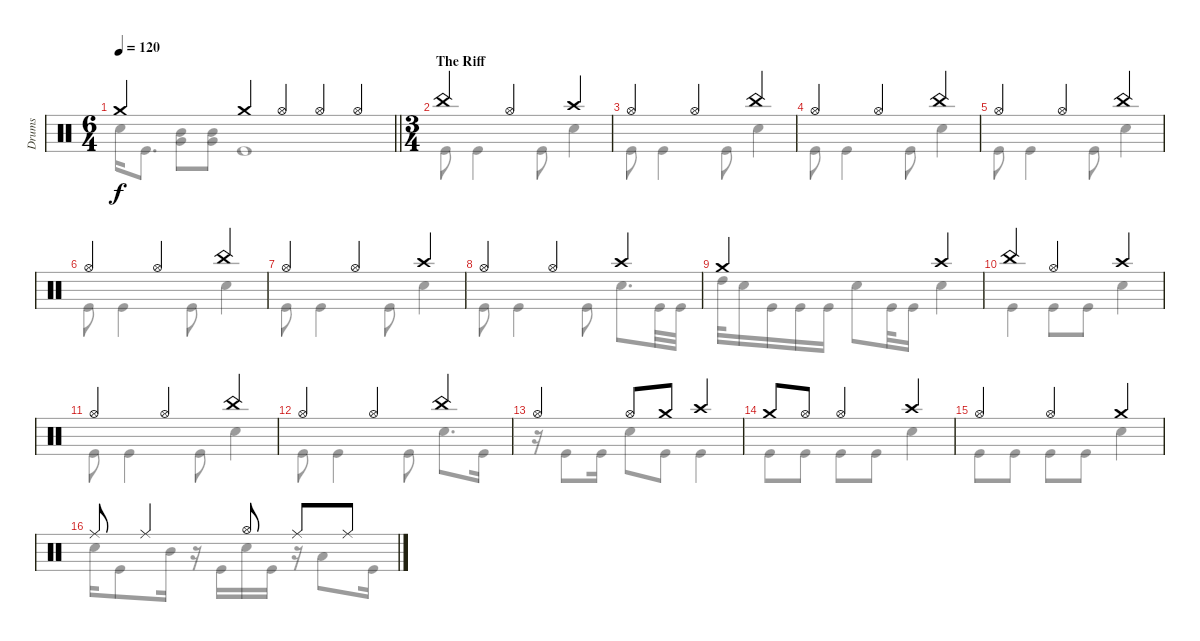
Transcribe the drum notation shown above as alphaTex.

\track ("Drums" "Drums") {instrument percussion}
\staff {score}
\articulation defaults
\voice
\ts (6 4)
\tempo 120
\clef neutral
\barLineRight lightlight
\ks c "Crash medium (hit)".2{dy f} "Crash medium (hit)".4 "Hi-Hat (open)".4 "Hi-Hat (open)".4 "Hi-Hat (open)".4
|
\ts (3 4)
\section ("" "The Riff")
"China (hit)".4 "Hi-Hat (open)".4 "Crash high (hit)".4 |
"Hi-Hat (open)".4 "Hi-Hat (open)".4 "China (hit)".4 |
"Hi-Hat (open)".4 "Hi-Hat (open)".4 "China (hit)".4 |
"Hi-Hat (open)".4 "Hi-Hat (open)".4 "China (hit)".4 |
"Hi-Hat (open)".4 "Hi-Hat (open)".4 "China (hit)".4 |
"Hi-Hat (open)".4 "Hi-Hat (open)".4 "Crash high (hit)".4 |
"Hi-Hat (open)".4 "Hi-Hat (open)".4 "Crash high (hit)".4 |
"Crash medium (hit)".2 "Crash high (hit)".4 |
"China (hit)".4 "Hi-Hat (open)".4 "Crash high (hit)".4 |
"Hi-Hat (open)".4 "Hi-Hat (open)".4 "China (hit)".4 |
"Hi-Hat (open)".4 "Hi-Hat (open)".4 "China (hit)".4 |
"Hi-Hat (open)".4 "Hi-Hat (open)".8 "Crash medium (hit)".8 "Crash high (hit)".4 |
"Crash medium (hit)".8 "Hi-Hat (open)".8 "Hi-Hat (open)".4 "Crash high (hit)".4 |
"Hi-Hat (open)".4 "Hi-Hat (open)".4 "Crash medium (hit)".4 |
"Ride (middle)".8 "Ride (middle)".4 "Hi-Hat (open)".8 "Ride (middle)".8 "Ride (middle)".8
\voice
\clef neutral
\ottava regular
\simile none
\barLineRight lightlight
\ks c "Snare (hit) 2".16{dy f} "Kick (hit)".8{d}
("Mid Tom (hit)" "Very Low Tom (hit)").8 ("Mid Tom (hit)" "Very Low Tom (hit)").8 "Kick (hit)".1 |
"Kick (hit)".8 "Kick (hit)".4 "Kick (hit)".8 "Snare (hit) 2".4 |
"Kick (hit)".8 "Kick (hit)".4 "Kick (hit)".8 "Snare (hit) 2".4 |
"Kick (hit)".8 "Kick (hit)".4 "Kick (hit)".8 "Snare (hit) 2".4 |
"Kick (hit)".8 "Kick (hit)".4 "Kick (hit)".8 "Snare (hit) 2".4 |
"Kick (hit)".8 "Kick (hit)".4 "Kick (hit)".8 "Snare (hit) 2".4 |
"Kick (hit)".8 "Kick (hit)".4 "Kick (hit)".8 "Snare (hit) 2".4 |
"Kick (hit)".8 "Kick (hit)".4 "Kick (hit)".8 "Snare (hit) 2".8{d} "Kick (hit)".32 "Kick (hit)".32 |
"High Tom (hit)".32 "Snare (hit) 2".16 "Kick (hit)".16 "Kick (hit)".16 "Kick (hit)".16 "Snare (hit) 2".8 "Kick (hit)".32 "Kick (hit)".16 "Snare (hit) 2".4 |
"Kick (hit)".4 "Kick (hit)".8 "Kick (hit)".8 "Snare (hit) 2".4 |
"Kick (hit)".8 "Kick (hit)".4 "Kick (hit)".8 "Snare (hit) 2".4 |
"Kick (hit)".8 "Kick (hit)".4 "Kick (hit)".8 "Snare (hit) 2".8{d} "Kick (hit)".16 |
r.16 "Kick (hit)".8 "Kick (hit)".16 "Snare (hit) 2".8 "Kick (hit)".8 "Kick (hit)".4 |
"Kick (hit)".8 "Kick (hit)".8 "Kick (hit)".8 "Kick (hit)".8 "Snare (hit) 2".4 |
"Kick (hit)".8 "Kick (hit)".8 "Kick (hit)".8 "Kick (hit)".8 "Snare (hit) 2".4 |
"Snare (hit) 2".16 "Kick (hit)".8 "Mid Tom (hit)".16 r.16 "Kick (hit)".16 "Snare (hit) 2".16 "Kick (hit)".16 r.16 "Low Tom (hit)".8 "Kick (hit)".16
